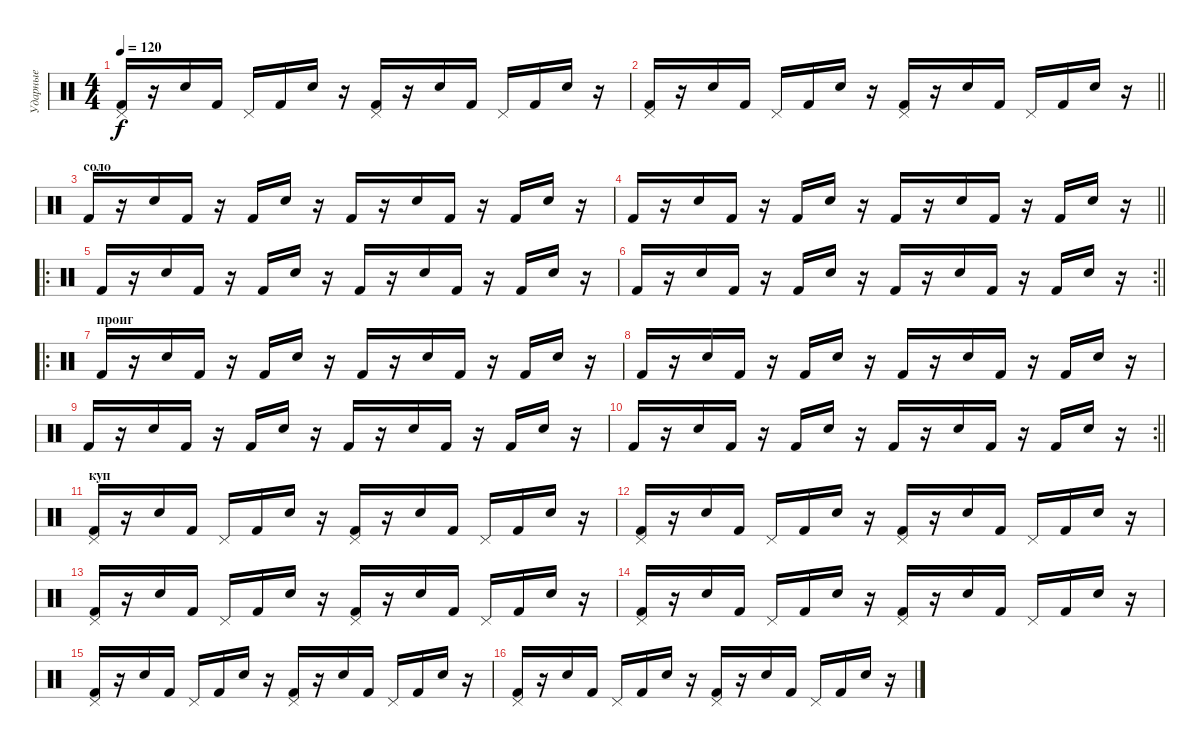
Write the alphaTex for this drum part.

\track ("Ударные" "Ударные") {instrument percussion}
\staff {score}
\articulation defaults
\ts (4 4)
\tempo 120
\clef neutral
\ks c
("Pedal Hi-Hat (hit)" "Kick (hit) 2").16{dy f} r.16 "Electric Snare (hit)".16 "Kick (hit) 2".16 "Pedal Hi-Hat (hit)".16 "Kick (hit) 2".16 "Electric Snare (hit)".16 r.16 ("Pedal Hi-Hat (hit)" "Kick (hit) 2").16 r.16 "Electric Snare (hit)".16 "Kick (hit) 2".16 "Pedal Hi-Hat (hit)".16 "Kick (hit) 2".16 "Electric Snare (hit)".16 r.16 |
\barLineRight lightlight
("Pedal Hi-Hat (hit)" "Kick (hit) 2").16 r.16 "Electric Snare (hit)".16 "Kick (hit) 2".16 "Pedal Hi-Hat (hit)".16 "Kick (hit) 2".16 "Electric Snare (hit)".16 r.16 ("Pedal Hi-Hat (hit)" "Kick (hit) 2").16 r.16 "Electric Snare (hit)".16 "Kick (hit) 2".16 "Pedal Hi-Hat (hit)".16 "Kick (hit) 2".16 "Electric Snare (hit)".16 r.16 |
\section ("" "соло")
"Kick (hit) 2".16 r.16 "Electric Snare (hit)".16 "Kick (hit) 2".16 r.16 "Kick (hit) 2".16 "Electric Snare (hit)".16 r.16 "Kick (hit) 2".16 r.16 "Electric Snare (hit)".16 "Kick (hit) 2".16 r.16 "Kick (hit) 2".16 "Electric Snare (hit)".16 r.16 |
\barLineRight lightlight "Kick (hit) 2".16
r.16 "Electric Snare (hit)".16 "Kick (hit) 2".16 r.16 "Kick (hit) 2".16 "Electric Snare (hit)".16 r.16 "Kick (hit) 2".16 r.16 "Electric Snare (hit)".16 "Kick (hit) 2".16 r.16 "Kick (hit) 2".16 "Electric Snare (hit)".16 r.16 |
\ro "Kick (hit) 2".16
r.16 "Electric Snare (hit)".16 "Kick (hit) 2".16 r.16 "Kick (hit) 2".16 "Electric Snare (hit)".16 r.16 "Kick (hit) 2".16 r.16 "Electric Snare (hit)".16 "Kick (hit) 2".16 r.16 "Kick (hit) 2".16 "Electric Snare (hit)".16 r.16 |
\rc 2
\barLineRight lightlight "Kick (hit) 2".16
r.16 "Electric Snare (hit)".16 "Kick (hit) 2".16 r.16 "Kick (hit) 2".16 "Electric Snare (hit)".16 r.16 "Kick (hit) 2".16 r.16 "Electric Snare (hit)".16 "Kick (hit) 2".16 r.16 "Kick (hit) 2".16 "Electric Snare (hit)".16 r.16 |
\ro
\section ("" "проиг")
"Kick (hit) 2".16 r.16 "Electric Snare (hit)".16 "Kick (hit) 2".16 r.16 "Kick (hit) 2".16 "Electric Snare (hit)".16 r.16 "Kick (hit) 2".16 r.16 "Electric Snare (hit)".16 "Kick (hit) 2".16 r.16 "Kick (hit) 2".16 "Electric Snare (hit)".16 r.16 |
"Kick (hit) 2".16 r.16 "Electric Snare (hit)".16 "Kick (hit) 2".16 r.16 "Kick (hit) 2".16 "Electric Snare (hit)".16 r.16 "Kick (hit) 2".16 r.16 "Electric Snare (hit)".16 "Kick (hit) 2".16 r.16 "Kick (hit) 2".16 "Electric Snare (hit)".16 r.16 |
"Kick (hit) 2".16 r.16 "Electric Snare (hit)".16 "Kick (hit) 2".16 r.16 "Kick (hit) 2".16 "Electric Snare (hit)".16 r.16 "Kick (hit) 2".16 r.16 "Electric Snare (hit)".16 "Kick (hit) 2".16 r.16 "Kick (hit) 2".16 "Electric Snare (hit)".16 r.16 |
\rc 2
\barLineRight lightlight "Kick (hit) 2".16
r.16 "Electric Snare (hit)".16 "Kick (hit) 2".16 r.16 "Kick (hit) 2".16 "Electric Snare (hit)".16 r.16 "Kick (hit) 2".16 r.16 "Electric Snare (hit)".16 "Kick (hit) 2".16 r.16 "Kick (hit) 2".16 "Electric Snare (hit)".16 r.16 |
\section ("" "куп")
("Pedal Hi-Hat (hit)" "Kick (hit) 2").16 r.16 "Electric Snare (hit)".16 "Kick (hit) 2".16 "Pedal Hi-Hat (hit)".16 "Kick (hit) 2".16 "Electric Snare (hit)".16 r.16 ("Pedal Hi-Hat (hit)" "Kick (hit) 2").16 r.16 "Electric Snare (hit)".16 "Kick (hit) 2".16 "Pedal Hi-Hat (hit)".16 "Kick (hit) 2".16 "Electric Snare (hit)".16 r.16 |
("Pedal Hi-Hat (hit)" "Kick (hit) 2").16 r.16 "Electric Snare (hit)".16 "Kick (hit) 2".16 "Pedal Hi-Hat (hit)".16 "Kick (hit) 2".16 "Electric Snare (hit)".16 r.16 ("Pedal Hi-Hat (hit)" "Kick (hit) 2").16 r.16 "Electric Snare (hit)".16 "Kick (hit) 2".16 "Pedal Hi-Hat (hit)".16 "Kick (hit) 2".16 "Electric Snare (hit)".16 r.16 |
("Pedal Hi-Hat (hit)" "Kick (hit) 2").16 r.16 "Electric Snare (hit)".16 "Kick (hit) 2".16 "Pedal Hi-Hat (hit)".16 "Kick (hit) 2".16 "Electric Snare (hit)".16 r.16 ("Pedal Hi-Hat (hit)" "Kick (hit) 2").16 r.16 "Electric Snare (hit)".16 "Kick (hit) 2".16 "Pedal Hi-Hat (hit)".16 "Kick (hit) 2".16 "Electric Snare (hit)".16 r.16 |
("Pedal Hi-Hat (hit)" "Kick (hit) 2").16 r.16 "Electric Snare (hit)".16 "Kick (hit) 2".16 "Pedal Hi-Hat (hit)".16 "Kick (hit) 2".16 "Electric Snare (hit)".16 r.16 ("Pedal Hi-Hat (hit)" "Kick (hit) 2").16 r.16 "Electric Snare (hit)".16 "Kick (hit) 2".16 "Pedal Hi-Hat (hit)".16 "Kick (hit) 2".16 "Electric Snare (hit)".16 r.16 |
("Pedal Hi-Hat (hit)" "Kick (hit) 2").16 r.16 "Electric Snare (hit)".16 "Kick (hit) 2".16 "Pedal Hi-Hat (hit)".16 "Kick (hit) 2".16 "Electric Snare (hit)".16 r.16 ("Pedal Hi-Hat (hit)" "Kick (hit) 2").16 r.16 "Electric Snare (hit)".16 "Kick (hit) 2".16 "Pedal Hi-Hat (hit)".16 "Kick (hit) 2".16 "Electric Snare (hit)".16 r.16 |
("Pedal Hi-Hat (hit)" "Kick (hit) 2").16 r.16 "Electric Snare (hit)".16 "Kick (hit) 2".16 "Pedal Hi-Hat (hit)".16 "Kick (hit) 2".16 "Electric Snare (hit)".16 r.16 ("Pedal Hi-Hat (hit)" "Kick (hit) 2").16 r.16 "Electric Snare (hit)".16 "Kick (hit) 2".16 "Pedal Hi-Hat (hit)".16 "Kick (hit) 2".16 "Electric Snare (hit)".16 r.16
